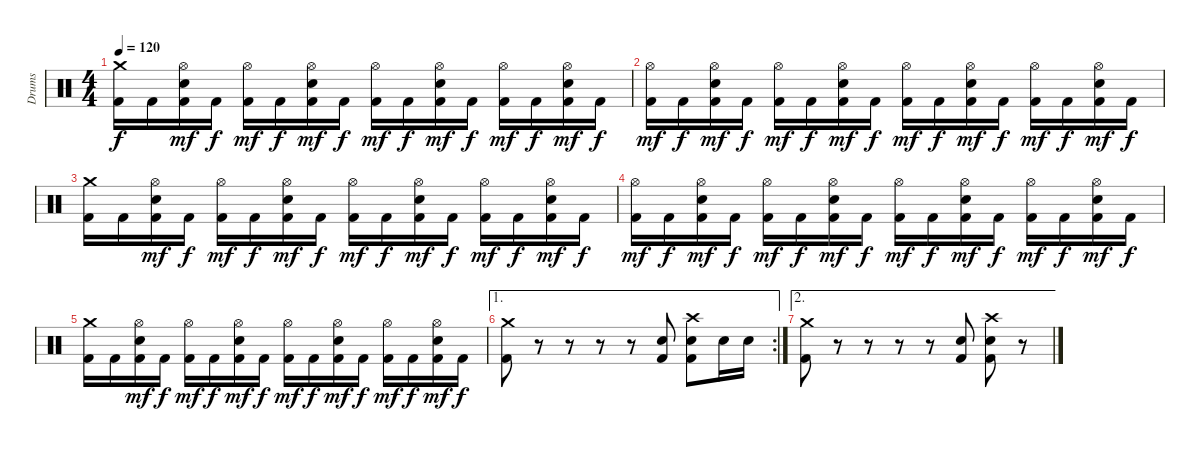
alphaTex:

\track ("Drums" "Drums") {instrument percussion}
\staff {score}
\articulation defaults
\ts (4 4)
\tempo 120
\clef neutral
\ks c
("Crash medium (hit)" "Kick (hit) 2").16{dy f} "Kick (hit) 2".16 ("Hi-Hat (open)" "Snare (hit) 2" "Kick (hit) 2").16{dy mf} "Kick (hit) 2".16{dy f} ("Hi-Hat (open)" "Kick (hit) 2").16{dy mf} "Kick (hit) 2".16{dy f} ("Hi-Hat (open)" "Snare (hit) 2" "Kick (hit) 2").16{dy mf} "Kick (hit) 2".16{dy f} ("Hi-Hat (open)" "Kick (hit) 2").16{dy mf} "Kick (hit) 2".16{dy f} ("Hi-Hat (open)" "Snare (hit) 2" "Kick (hit) 2").16{dy mf} "Kick (hit) 2".16{dy f} ("Hi-Hat (open)" "Kick (hit) 2").16{dy mf} "Kick (hit) 2".16{dy f} ("Hi-Hat (open)" "Snare (hit) 2" "Kick (hit) 2").16{dy mf} "Kick (hit) 2".16{dy f} |
("Hi-Hat (open)" "Kick (hit) 2").16{dy mf} "Kick (hit) 2".16{dy f} ("Hi-Hat (open)" "Snare (hit) 2" "Kick (hit) 2").16{dy mf} "Kick (hit) 2".16{dy f} ("Hi-Hat (open)" "Kick (hit) 2").16{dy mf} "Kick (hit) 2".16{dy f} ("Hi-Hat (open)" "Snare (hit) 2" "Kick (hit) 2").16{dy mf} "Kick (hit) 2".16{dy f} ("Hi-Hat (open)" "Kick (hit) 2").16{dy mf} "Kick (hit) 2".16{dy f} ("Hi-Hat (open)" "Snare (hit) 2" "Kick (hit) 2").16{dy mf} "Kick (hit) 2".16{dy f} ("Hi-Hat (open)" "Kick (hit) 2").16{dy mf} "Kick (hit) 2".16{dy f} ("Hi-Hat (open)" "Snare (hit) 2" "Kick (hit) 2").16{dy mf} "Kick (hit) 2".16{dy f} |
("Crash medium (hit)" "Kick (hit) 2").16 "Kick (hit) 2".16 ("Hi-Hat (open)" "Snare (hit) 2" "Kick (hit) 2").16{dy mf} "Kick (hit) 2".16{dy f} ("Hi-Hat (open)" "Kick (hit) 2").16{dy mf} "Kick (hit) 2".16{dy f} ("Hi-Hat (open)" "Snare (hit) 2" "Kick (hit) 2").16{dy mf} "Kick (hit) 2".16{dy f} ("Hi-Hat (open)" "Kick (hit) 2").16{dy mf} "Kick (hit) 2".16{dy f} ("Hi-Hat (open)" "Snare (hit) 2" "Kick (hit) 2").16{dy mf} "Kick (hit) 2".16{dy f} ("Hi-Hat (open)" "Kick (hit) 2").16{dy mf} "Kick (hit) 2".16{dy f} ("Hi-Hat (open)" "Snare (hit) 2" "Kick (hit) 2").16{dy mf} "Kick (hit) 2".16{dy f} |
("Hi-Hat (open)" "Kick (hit) 2").16{dy mf} "Kick (hit) 2".16{dy f} ("Hi-Hat (open)" "Snare (hit) 2" "Kick (hit) 2").16{dy mf} "Kick (hit) 2".16{dy f} ("Hi-Hat (open)" "Kick (hit) 2").16{dy mf} "Kick (hit) 2".16{dy f} ("Hi-Hat (open)" "Snare (hit) 2" "Kick (hit) 2").16{dy mf} "Kick (hit) 2".16{dy f} ("Hi-Hat (open)" "Kick (hit) 2").16{dy mf} "Kick (hit) 2".16{dy f} ("Hi-Hat (open)" "Snare (hit) 2" "Kick (hit) 2").16{dy mf} "Kick (hit) 2".16{dy f} ("Hi-Hat (open)" "Kick (hit) 2").16{dy mf} "Kick (hit) 2".16{dy f} ("Hi-Hat (open)" "Snare (hit) 2" "Kick (hit) 2").16{dy mf} "Kick (hit) 2".16{dy f} |
("Crash medium (hit)" "Kick (hit) 2").16 "Kick (hit) 2".16 ("Hi-Hat (open)" "Snare (hit) 2" "Kick (hit) 2").16{dy mf} "Kick (hit) 2".16{dy f} ("Hi-Hat (open)" "Kick (hit) 2").16{dy mf} "Kick (hit) 2".16{dy f} ("Hi-Hat (open)" "Snare (hit) 2" "Kick (hit) 2").16{dy mf} "Kick (hit) 2".16{dy f} ("Hi-Hat (open)" "Kick (hit) 2").16{dy mf} "Kick (hit) 2".16{dy f} ("Hi-Hat (open)" "Snare (hit) 2" "Kick (hit) 2").16{dy mf} "Kick (hit) 2".16{dy f} ("Hi-Hat (open)" "Kick (hit) 2").16{dy mf} "Kick (hit) 2".16{dy f} ("Hi-Hat (open)" "Snare (hit) 2" "Kick (hit) 2").16{dy mf} "Kick (hit) 2".16{dy f} |
\ae 1
\rc 2
("Crash medium (hit)" "Kick (hit) 2").8 r.8 r.8 r.8 r.8 ("Kick (hit) 2" "Snare (hit) 2").8 ("Snare (hit) 2" "Kick (hit) 2" "Crash high (hit)").8 "Snare (hit) 2".16 "Snare (hit) 2".16 |
\ae 2
("Crash medium (hit)" "Kick (hit) 2").8 r.8 r.8 r.8 r.8 ("Kick (hit) 2" "Snare (hit) 2").8 ("Snare (hit) 2" "Kick (hit) 2" "Crash high (hit)").8 r.8
